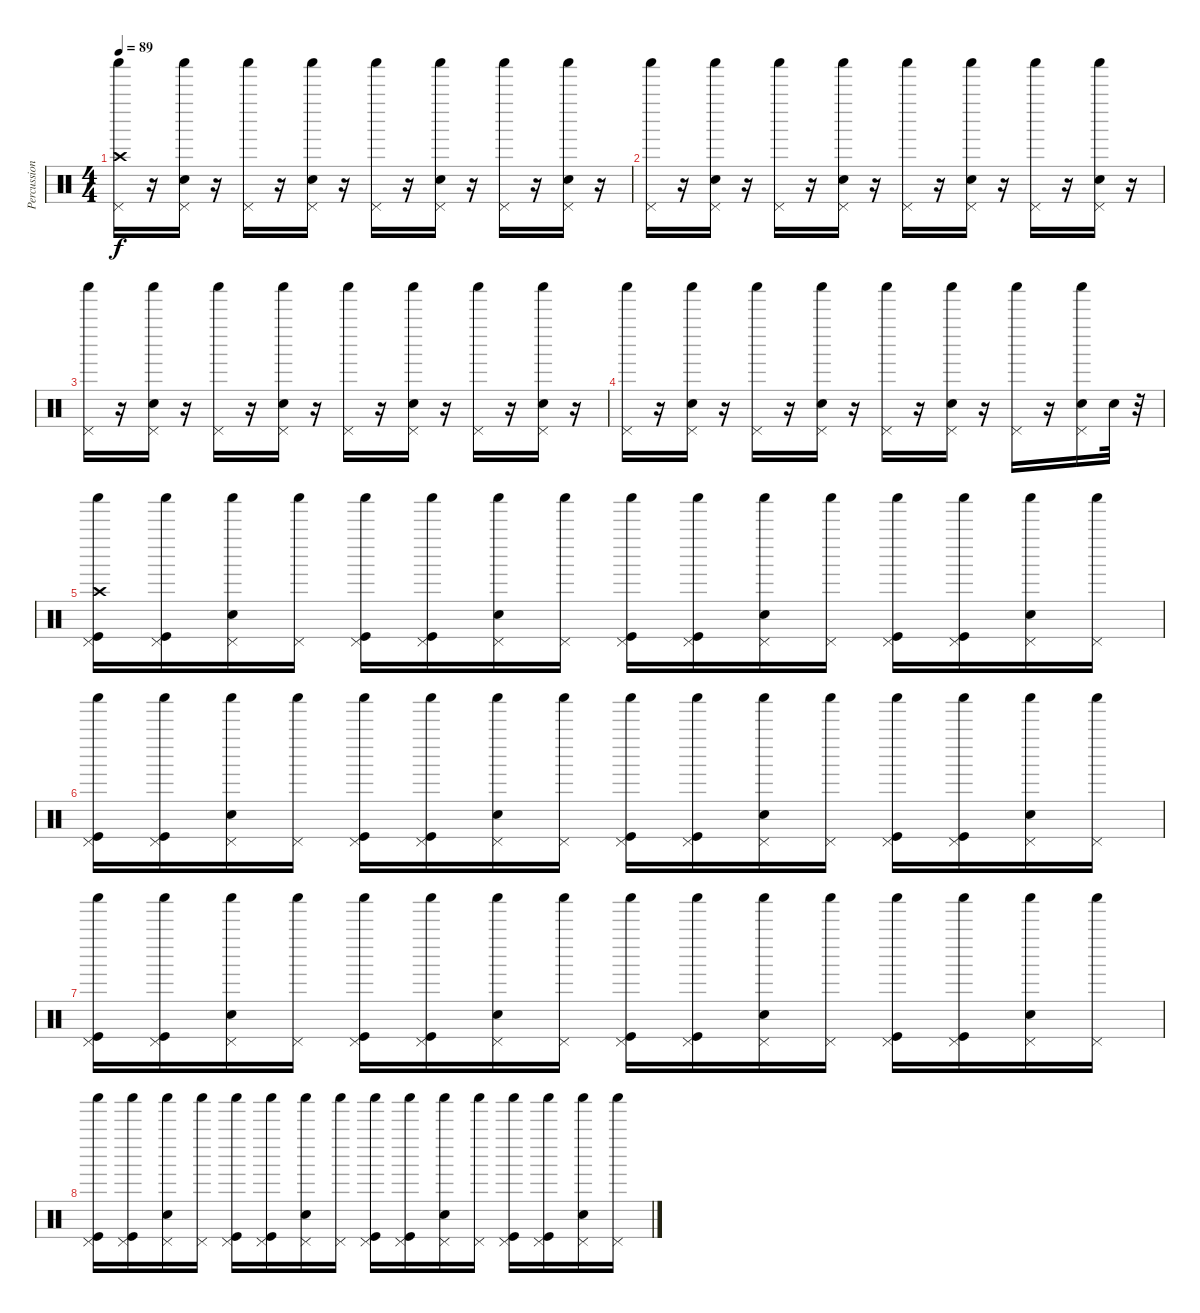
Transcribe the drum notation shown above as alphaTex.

\track ("Percussion" "Percussion") {instrument percussion}
\staff {score}
\articulation defaults
\ts (4 4)
\tempo 89
\clef neutral
\ks c
("Pedal Hi-Hat (hit)" "Shaker (hit)" "Crash high (hit)").16{dy f} r.16 ("Pedal Hi-Hat (hit)" "Shaker (hit)" "Snare (hit) 2").16 r.16 ("Pedal Hi-Hat (hit)" "Shaker (hit)").16 r.16 ("Pedal Hi-Hat (hit)" "Shaker (hit)" "Snare (hit) 2").16 r.16 ("Pedal Hi-Hat (hit)" "Shaker (hit)").16 r.16 ("Pedal Hi-Hat (hit)" "Shaker (hit)" "Snare (hit) 2").16 r.16 ("Pedal Hi-Hat (hit)" "Shaker (hit)").16 r.16 ("Pedal Hi-Hat (hit)" "Shaker (hit)" "Snare (hit) 2").16 r.16 |
("Pedal Hi-Hat (hit)" "Shaker (hit)").16 r.16 ("Pedal Hi-Hat (hit)" "Shaker (hit)" "Snare (hit) 2").16 r.16 ("Pedal Hi-Hat (hit)" "Shaker (hit)").16 r.16 ("Pedal Hi-Hat (hit)" "Shaker (hit)" "Snare (hit) 2").16 r.16 ("Pedal Hi-Hat (hit)" "Shaker (hit)").16 r.16 ("Pedal Hi-Hat (hit)" "Shaker (hit)" "Snare (hit) 2").16 r.16 ("Pedal Hi-Hat (hit)" "Shaker (hit)").16 r.16 ("Pedal Hi-Hat (hit)" "Shaker (hit)" "Snare (hit) 2").16 r.16 |
("Pedal Hi-Hat (hit)" "Shaker (hit)").16 r.16 ("Pedal Hi-Hat (hit)" "Shaker (hit)" "Snare (hit) 2").16 r.16 ("Pedal Hi-Hat (hit)" "Shaker (hit)").16 r.16 ("Pedal Hi-Hat (hit)" "Shaker (hit)" "Snare (hit) 2").16 r.16 ("Pedal Hi-Hat (hit)" "Shaker (hit)").16 r.16 ("Pedal Hi-Hat (hit)" "Shaker (hit)" "Snare (hit) 2").16 r.16 ("Pedal Hi-Hat (hit)" "Shaker (hit)").16 r.16 ("Pedal Hi-Hat (hit)" "Shaker (hit)" "Snare (hit) 2").16 r.16 |
("Pedal Hi-Hat (hit)" "Shaker (hit)").16 r.16 ("Pedal Hi-Hat (hit)" "Shaker (hit)" "Snare (hit) 2").16 r.16 ("Pedal Hi-Hat (hit)" "Shaker (hit)").16 r.16 ("Pedal Hi-Hat (hit)" "Shaker (hit)" "Snare (hit) 2").16 r.16 ("Pedal Hi-Hat (hit)" "Shaker (hit)").16 r.16 ("Pedal Hi-Hat (hit)" "Shaker (hit)" "Snare (hit) 2").16 r.16 ("Pedal Hi-Hat (hit)" "Shaker (hit)").16 r.16 ("Pedal Hi-Hat (hit)" "Shaker (hit)" "Snare (hit) 2").16 "Snare (hit) 2".32 r.32 |
("Pedal Hi-Hat (hit)" "Shaker (hit)" "Crash high (hit)" "Kick (hit)").16 ("Pedal Hi-Hat (hit)" "Shaker (hit)" "Kick (hit)").16 ("Pedal Hi-Hat (hit)" "Shaker (hit)" "Snare (hit) 2").16 ("Pedal Hi-Hat (hit)" "Shaker (hit)").16 ("Pedal Hi-Hat (hit)" "Shaker (hit)" "Kick (hit)").16 ("Pedal Hi-Hat (hit)" "Shaker (hit)" "Kick (hit)").16 ("Pedal Hi-Hat (hit)" "Shaker (hit)" "Snare (hit) 2").16 ("Pedal Hi-Hat (hit)" "Shaker (hit)").16 ("Pedal Hi-Hat (hit)" "Shaker (hit)" "Kick (hit)").16 ("Pedal Hi-Hat (hit)" "Shaker (hit)" "Kick (hit)").16 ("Pedal Hi-Hat (hit)" "Shaker (hit)" "Snare (hit) 2").16 ("Pedal Hi-Hat (hit)" "Shaker (hit)").16 ("Pedal Hi-Hat (hit)" "Shaker (hit)" "Kick (hit)").16 ("Pedal Hi-Hat (hit)" "Shaker (hit)" "Kick (hit)").16 ("Pedal Hi-Hat (hit)" "Shaker (hit)" "Snare (hit) 2").16 ("Pedal Hi-Hat (hit)" "Shaker (hit)").16 |
("Pedal Hi-Hat (hit)" "Shaker (hit)" "Kick (hit)").16 ("Pedal Hi-Hat (hit)" "Shaker (hit)" "Kick (hit)").16 ("Pedal Hi-Hat (hit)" "Shaker (hit)" "Snare (hit) 2").16 ("Pedal Hi-Hat (hit)" "Shaker (hit)").16 ("Pedal Hi-Hat (hit)" "Shaker (hit)" "Kick (hit)").16 ("Pedal Hi-Hat (hit)" "Shaker (hit)" "Kick (hit)").16 ("Pedal Hi-Hat (hit)" "Shaker (hit)" "Snare (hit) 2").16 ("Pedal Hi-Hat (hit)" "Shaker (hit)").16 ("Pedal Hi-Hat (hit)" "Shaker (hit)" "Kick (hit)").16 ("Pedal Hi-Hat (hit)" "Shaker (hit)" "Kick (hit)").16 ("Pedal Hi-Hat (hit)" "Shaker (hit)" "Snare (hit) 2").16 ("Pedal Hi-Hat (hit)" "Shaker (hit)").16 ("Pedal Hi-Hat (hit)" "Shaker (hit)" "Kick (hit)").16 ("Pedal Hi-Hat (hit)" "Shaker (hit)" "Kick (hit)").16 ("Pedal Hi-Hat (hit)" "Shaker (hit)" "Snare (hit) 2").16 ("Pedal Hi-Hat (hit)" "Shaker (hit)").16 |
("Pedal Hi-Hat (hit)" "Shaker (hit)" "Kick (hit)").16 ("Pedal Hi-Hat (hit)" "Shaker (hit)" "Kick (hit)").16 ("Pedal Hi-Hat (hit)" "Shaker (hit)" "Snare (hit) 2").16 ("Pedal Hi-Hat (hit)" "Shaker (hit)").16 ("Pedal Hi-Hat (hit)" "Shaker (hit)" "Kick (hit)").16 ("Pedal Hi-Hat (hit)" "Shaker (hit)" "Kick (hit)").16 ("Pedal Hi-Hat (hit)" "Shaker (hit)" "Snare (hit) 2").16 ("Pedal Hi-Hat (hit)" "Shaker (hit)").16 ("Pedal Hi-Hat (hit)" "Shaker (hit)" "Kick (hit)").16 ("Pedal Hi-Hat (hit)" "Shaker (hit)" "Kick (hit)").16 ("Pedal Hi-Hat (hit)" "Shaker (hit)" "Snare (hit) 2").16 ("Pedal Hi-Hat (hit)" "Shaker (hit)").16 ("Pedal Hi-Hat (hit)" "Shaker (hit)" "Kick (hit)").16 ("Pedal Hi-Hat (hit)" "Shaker (hit)" "Kick (hit)").16 ("Pedal Hi-Hat (hit)" "Shaker (hit)" "Snare (hit) 2").16 ("Pedal Hi-Hat (hit)" "Shaker (hit)").16 |
("Pedal Hi-Hat (hit)" "Shaker (hit)" "Kick (hit)").16 ("Pedal Hi-Hat (hit)" "Shaker (hit)" "Kick (hit)").16 ("Pedal Hi-Hat (hit)" "Shaker (hit)" "Snare (hit) 2").16 ("Pedal Hi-Hat (hit)" "Shaker (hit)").16 ("Pedal Hi-Hat (hit)" "Shaker (hit)" "Kick (hit)").16 ("Pedal Hi-Hat (hit)" "Shaker (hit)" "Kick (hit)").16 ("Pedal Hi-Hat (hit)" "Shaker (hit)" "Snare (hit) 2").16 ("Pedal Hi-Hat (hit)" "Shaker (hit)").16 ("Pedal Hi-Hat (hit)" "Shaker (hit)" "Kick (hit)").16 ("Pedal Hi-Hat (hit)" "Shaker (hit)" "Kick (hit)").16 ("Pedal Hi-Hat (hit)" "Shaker (hit)" "Snare (hit) 2").16 ("Pedal Hi-Hat (hit)" "Shaker (hit)").16 ("Pedal Hi-Hat (hit)" "Shaker (hit)" "Kick (hit)").16 ("Pedal Hi-Hat (hit)" "Shaker (hit)" "Kick (hit)").16 ("Pedal Hi-Hat (hit)" "Shaker (hit)" "Snare (hit) 2").16 ("Pedal Hi-Hat (hit)" "Shaker (hit)").16
